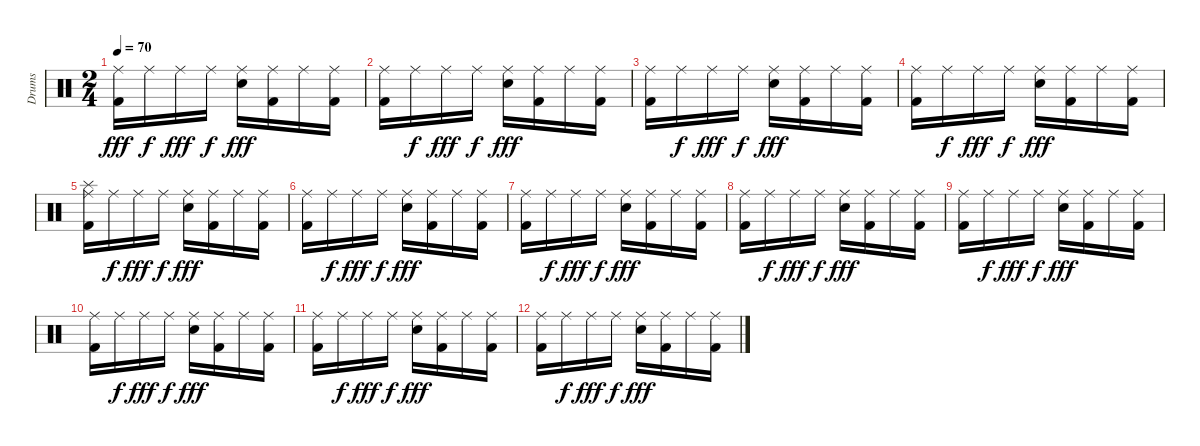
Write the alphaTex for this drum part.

\track ("Drums" "Drums") {instrument percussion}
\staff {score}
\articulation defaults
\ts (2 4)
\tempo 70
\clef neutral
\ks c
("Ride (middle)" "Kick (hit) 2").16{dy fff} "Ride (middle)".16{dy f} "Ride (middle)".16{dy fff} "Ride (middle)".16{dy f} ("Ride (middle)" "Electric Snare (hit)").16{dy fff} ("Ride (middle)" "Kick (hit) 2").16 "Ride (middle)".16 ("Ride (middle)" "Kick (hit) 2").16 |
("Ride (middle)" "Kick (hit) 2").16 "Ride (middle)".16{dy f} "Ride (middle)".16{dy fff} "Ride (middle)".16{dy f} ("Ride (middle)" "Electric Snare (hit)").16{dy fff} ("Ride (middle)" "Kick (hit) 2").16 "Ride (middle)".16 ("Ride (middle)" "Kick (hit) 2").16 |
("Ride (middle)" "Kick (hit) 2").16 "Ride (middle)".16{dy f} "Ride (middle)".16{dy fff} "Ride (middle)".16{dy f} ("Ride (middle)" "Electric Snare (hit)").16{dy fff} ("Ride (middle)" "Kick (hit) 2").16 "Ride (middle)".16 ("Ride (middle)" "Kick (hit) 2").16 |
("Ride (middle)" "Kick (hit) 2").16 "Ride (middle)".16{dy f} "Ride (middle)".16{dy fff} "Ride (middle)".16{dy f} ("Ride (middle)" "Electric Snare (hit)").16{dy fff} ("Ride (middle)" "Kick (hit) 2").16 "Ride (middle)".16 ("Ride (middle)" "Kick (hit) 2").16 |
("Splash (hit)" "Ride (middle)" "Kick (hit) 2").16 "Ride (middle)".16{dy f} "Ride (middle)".16{dy fff} "Ride (middle)".16{dy f} ("Ride (middle)" "Electric Snare (hit)").16{dy fff} ("Ride (middle)" "Kick (hit) 2").16 "Ride (middle)".16 ("Ride (middle)" "Kick (hit) 2").16 |
("Ride (middle)" "Kick (hit) 2").16 "Ride (middle)".16{dy f} "Ride (middle)".16{dy fff} "Ride (middle)".16{dy f} ("Ride (middle)" "Electric Snare (hit)").16{dy fff} ("Ride (middle)" "Kick (hit) 2").16 "Ride (middle)".16 ("Ride (middle)" "Kick (hit) 2").16 |
("Ride (middle)" "Kick (hit) 2").16 "Ride (middle)".16{dy f} "Ride (middle)".16{dy fff} "Ride (middle)".16{dy f} ("Ride (middle)" "Electric Snare (hit)").16{dy fff} ("Ride (middle)" "Kick (hit) 2").16 "Ride (middle)".16 ("Ride (middle)" "Kick (hit) 2").16 |
("Ride (middle)" "Kick (hit) 2").16 "Ride (middle)".16{dy f} "Ride (middle)".16{dy fff} "Ride (middle)".16{dy f} ("Ride (middle)" "Electric Snare (hit)").16{dy fff} ("Ride (middle)" "Kick (hit) 2").16 "Ride (middle)".16 ("Ride (middle)" "Kick (hit) 2").16 |
("Ride (middle)" "Kick (hit) 2").16 "Ride (middle)".16{dy f} "Ride (middle)".16{dy fff} "Ride (middle)".16{dy f} ("Ride (middle)" "Electric Snare (hit)").16{dy fff} ("Ride (middle)" "Kick (hit) 2").16 "Ride (middle)".16 ("Ride (middle)" "Kick (hit) 2").16 |
("Ride (middle)" "Kick (hit) 2").16 "Ride (middle)".16{dy f} "Ride (middle)".16{dy fff} "Ride (middle)".16{dy f} ("Ride (middle)" "Electric Snare (hit)").16{dy fff} ("Ride (middle)" "Kick (hit) 2").16 "Ride (middle)".16 ("Ride (middle)" "Kick (hit) 2").16 |
("Ride (middle)" "Kick (hit) 2").16 "Ride (middle)".16{dy f} "Ride (middle)".16{dy fff} "Ride (middle)".16{dy f} ("Ride (middle)" "Electric Snare (hit)").16{dy fff} ("Ride (middle)" "Kick (hit) 2").16 "Ride (middle)".16 ("Ride (middle)" "Kick (hit) 2").16 |
("Ride (middle)" "Kick (hit) 2").16 "Ride (middle)".16{dy f} "Ride (middle)".16{dy fff} "Ride (middle)".16{dy f} ("Ride (middle)" "Electric Snare (hit)").16{dy fff} ("Ride (middle)" "Kick (hit) 2").16 "Ride (middle)".16 ("Ride (middle)" "Kick (hit) 2").16
